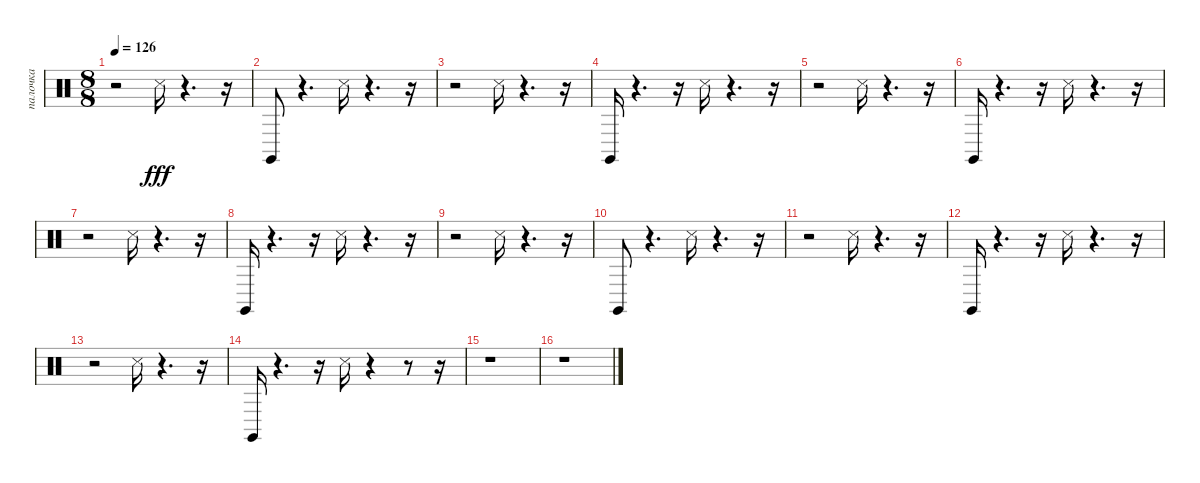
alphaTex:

\track ("палочка" "палочка") {instrument percussion}
\staff {score}
\articulation defaults
\ts (8 8)
\tempo 126
\clef neutral
\ks c
r.2{dy fff} "Snare (side stick) 3".16 r.4{d} r.16 |
"Claves (hit)".8 r.4{d} "Snare (side stick) 3".16 r.4{d} r.16 |
r.2 "Snare (side stick) 3".16 r.4{d} r.16 |
"Claves (hit)".16 r.4{d} r.16 "Snare (side stick) 3".16 r.4{d} r.16 |
r.2 "Snare (side stick) 3".16 r.4{d} r.16 |
"Claves (hit)".16 r.4{d} r.16 "Snare (side stick) 3".16 r.4{d} r.16 |
r.2 "Snare (side stick) 3".16 r.4{d} r.16 |
"Claves (hit)".16 r.4{d} r.16 "Snare (side stick) 3".16 r.4{d} r.16 |
r.2 "Snare (side stick) 3".16 r.4{d} r.16 |
"Claves (hit)".8 r.4{d} "Snare (side stick) 3".16 r.4{d} r.16 |
r.2 "Snare (side stick) 3".16 r.4{d} r.16 |
"Claves (hit)".16 r.4{d} r.16 "Snare (side stick) 3".16 r.4{d} r.16 |
r.2 "Snare (side stick) 3".16 r.4{d} r.16 |
"Claves (hit)".16 r.4{d} r.16 "Snare (side stick) 3".16 r.4 r.8 r.16 |
r.1 |
r.1
